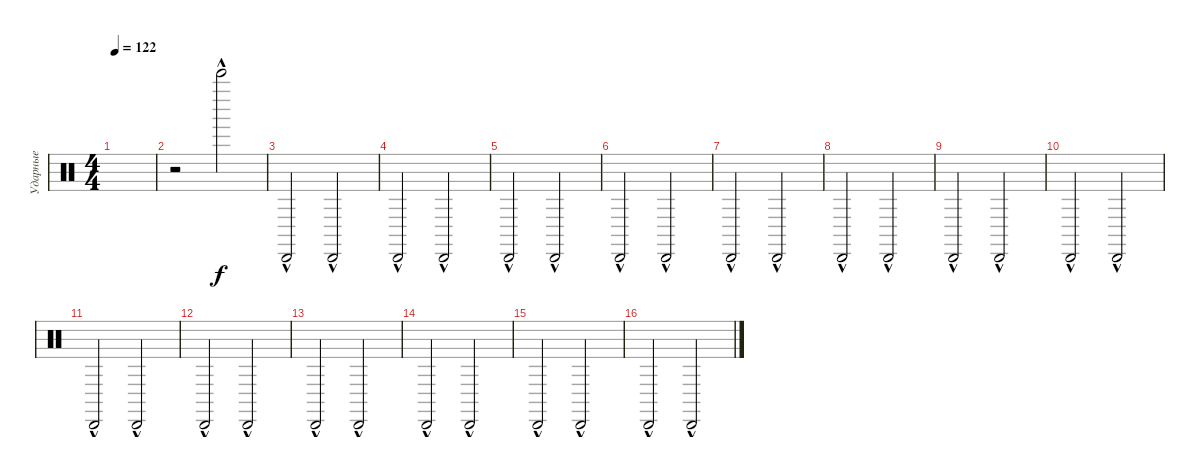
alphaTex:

\track ("Ударные" "Ударные") {instrument percussion}
\staff {score}
\articulation defaults
\ts (4 4)
\tempo 122
\clef neutral
\ks c
|
r.2 "Bell Tree (hit)"{hac}.2 |
"Cabasa (hit)"{hac}.2 "Cabasa (hit)"{hac}.2 |
"Cabasa (hit)"{hac}.2 "Cabasa (hit)"{hac}.2 |
"Cabasa (hit)"{hac}.2 "Cabasa (hit)"{hac}.2 |
"Cabasa (hit)"{hac}.2 "Cabasa (hit)"{hac}.2 |
"Cabasa (hit)"{hac}.2 "Cabasa (hit)"{hac}.2 |
"Cabasa (hit)"{hac}.2 "Cabasa (hit)"{hac}.2 |
"Cabasa (hit)"{hac}.2 "Cabasa (hit)"{hac}.2 |
"Cabasa (hit)"{hac}.2 "Cabasa (hit)"{hac}.2 |
"Cabasa (hit)"{hac}.2 "Cabasa (hit)"{hac}.2 |
"Cabasa (hit)"{hac}.2 "Cabasa (hit)"{hac}.2 |
"Cabasa (hit)"{hac}.2 "Cabasa (hit)"{hac}.2 |
"Cabasa (hit)"{hac}.2 "Cabasa (hit)"{hac}.2 |
"Cabasa (hit)"{hac}.2 "Cabasa (hit)"{hac}.2 |
"Cabasa (hit)"{hac}.2 "Cabasa (hit)"{hac}.2
